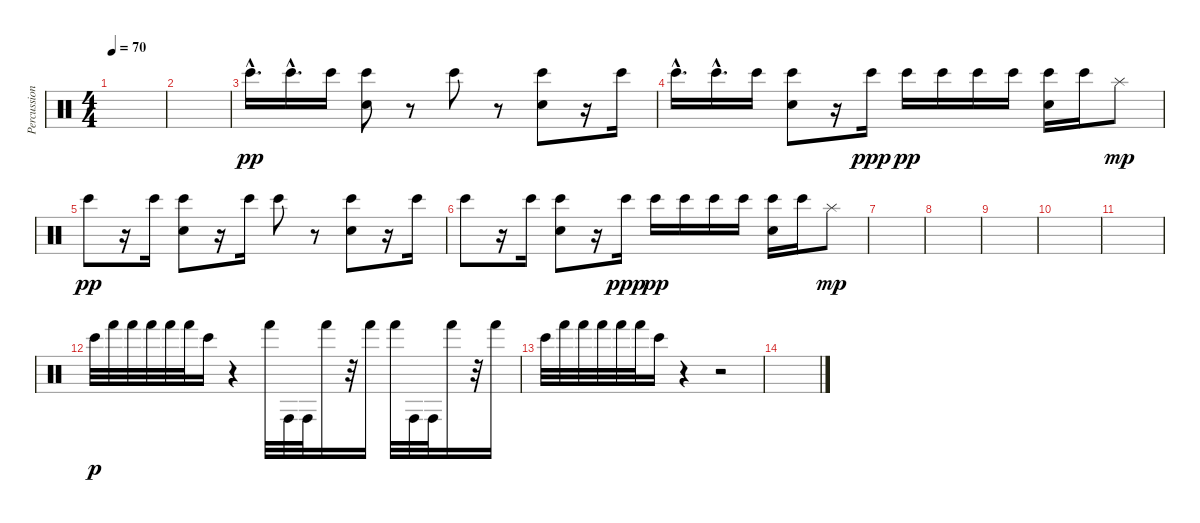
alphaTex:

\track ("Percussions" "Percussion") {instrument percussion}
\staff {score}
\articulation defaults
\ts (4 4)
\tempo 70
\clef neutral
\ks c
|
|
"Bongo High (hit)"{hac}.16{d dy pp balance 4} "Bongo High (hit)"{hac}.16{d} "Bongo High (hit)".16 ("Electric Snare (hit)" "Bongo High (hit)").8 r.8 "Bongo High (hit)".8 r.8 ("Electric Snare (hit)" "Bongo High (hit)").8 r.16 "Bongo High (hit)".16 |
"Bongo High (hit)"{hac}.16{d} "Bongo High (hit)"{hac}.16{d} "Bongo High (hit)".16 ("Electric Snare (hit)" "Bongo High (hit)").8 r.16 "Bongo High (hit)".16{dy ppp} "Bongo High (hit)".16{dy pp} "Bongo High (hit)".16 "Bongo High (hit)".16 "Bongo High (hit)".16 ("Electric Snare (hit)" "Bongo High (hit)").16 "Bongo High (hit)".16 "Splash (hit)".8{dy mp} |
"Bongo High (hit)".8{dy pp} r.16 "Bongo High (hit)".16 ("Electric Snare (hit)" "Bongo High (hit)").8 r.16 "Bongo High (hit)".16 "Bongo High (hit)".8 r.8 ("Electric Snare (hit)" "Bongo High (hit)").8 r.16 "Bongo High (hit)".16 |
"Bongo High (hit)".8 r.16 "Bongo High (hit)".16 ("Electric Snare (hit)" "Bongo High (hit)").8 r.16 "Bongo High (hit)".16{dy ppp} "Bongo High (hit)".16{dy pp} "Bongo High (hit)".16 "Bongo High (hit)".16 "Bongo High (hit)".16 ("Electric Snare (hit)" "Bongo High (hit)").16 "Bongo High (hit)".16 "Splash (hit)".8{dy mp} |
|
\section ("" "")
|
|
|
|
\section ("" "")
"Bongo High (hit)".32{dy p balance 1} "Hand (hit)".32 "Hand (hit)".32 "Hand (hit)".32 "Hand (hit)".32 "Hand (hit)".32 "Bongo High (hit)".16 r.4 "Hand (hit)".32 "Conga high (hit)".32 "Conga high (hit)".32 "Hand (hit)".16 r.32 "Hand (hit)".16 "Hand (hit)".32 "Conga high (hit)".32 "Conga high (hit)".32 "Hand (hit)".16 r.32 "Hand (hit)".16 |
"Bongo High (hit)".32{balance 1} "Hand (hit)".32 "Hand (hit)".32 "Hand (hit)".32 "Hand (hit)".32 "Hand (hit)".32 "Bongo High (hit)".16 r.4 r.2 |
\section ("" "")
